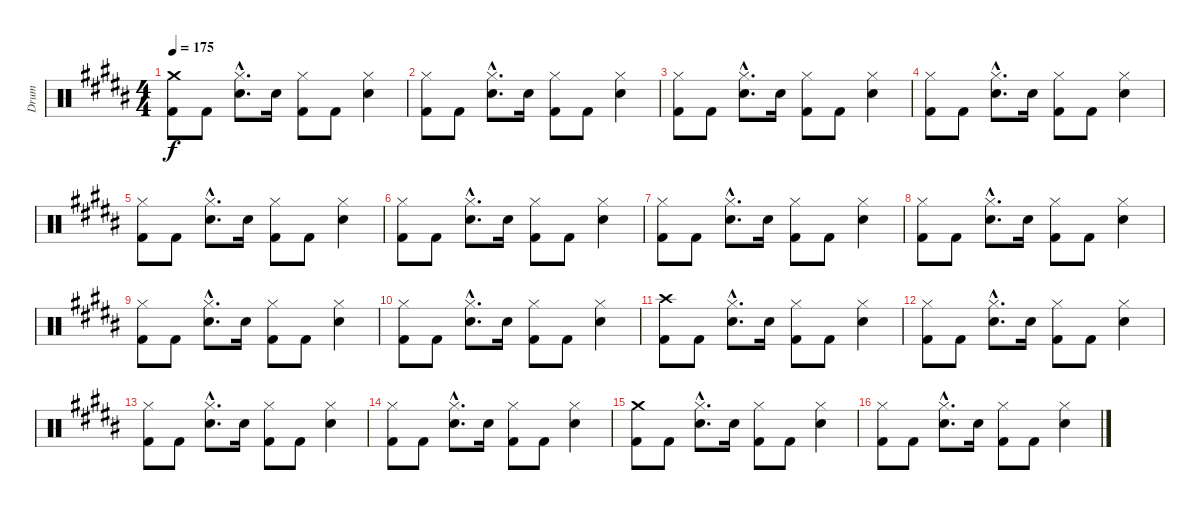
\track ("Drum" "Drum") {instrument percussion}
\staff {score}
\articulation defaults
\ts (4 4)
\tempo 175
\clef neutral
\ks b
("Crash medium (hit)" "Kick (hit) 2").8{dy f} "Kick (hit) 2".8 ("Hi-Hat (closed)"{hac} "Snare (hit) 2"{hac}).8{d} "Snare (hit) 2".16 ("Hi-Hat (closed)" "Kick (hit) 2").8 "Kick (hit) 2".8 ("Hi-Hat (closed)" "Snare (hit) 2").4 |
("Hi-Hat (closed)" "Kick (hit) 2").8 "Kick (hit) 2".8 ("Hi-Hat (closed)"{hac} "Snare (hit) 2"{hac}).8{d} "Snare (hit) 2".16 ("Hi-Hat (closed)" "Kick (hit) 2").8 "Kick (hit) 2".8 ("Hi-Hat (closed)" "Snare (hit) 2").4 |
("Hi-Hat (closed)" "Kick (hit) 2").8 "Kick (hit) 2".8 ("Hi-Hat (closed)"{hac} "Snare (hit) 2"{hac}).8{d} "Snare (hit) 2".16 ("Hi-Hat (closed)" "Kick (hit) 2").8 "Kick (hit) 2".8 ("Hi-Hat (closed)" "Snare (hit) 2").4 |
("Hi-Hat (closed)" "Kick (hit) 2").8 "Kick (hit) 2".8 ("Hi-Hat (closed)"{hac} "Snare (hit) 2"{hac}).8{d} "Snare (hit) 2".16 ("Hi-Hat (closed)" "Kick (hit) 2").8 "Kick (hit) 2".8 ("Hi-Hat (closed)" "Snare (hit) 2").4 |
("Hi-Hat (closed)" "Kick (hit) 2").8 "Kick (hit) 2".8 ("Hi-Hat (closed)"{hac} "Snare (hit) 2"{hac}).8{d} "Snare (hit) 2".16 ("Hi-Hat (closed)" "Kick (hit) 2").8 "Kick (hit) 2".8 ("Hi-Hat (closed)" "Snare (hit) 2").4 |
("Hi-Hat (closed)" "Kick (hit) 2").8 "Kick (hit) 2".8 ("Hi-Hat (closed)"{hac} "Snare (hit) 2"{hac}).8{d} "Snare (hit) 2".16 ("Hi-Hat (closed)" "Kick (hit) 2").8 "Kick (hit) 2".8 ("Hi-Hat (closed)" "Snare (hit) 2").4 |
("Hi-Hat (closed)" "Kick (hit) 2").8 "Kick (hit) 2".8 ("Hi-Hat (closed)"{hac} "Snare (hit) 2"{hac}).8{d} "Snare (hit) 2".16 ("Hi-Hat (closed)" "Kick (hit) 2").8 "Kick (hit) 2".8 ("Hi-Hat (closed)" "Snare (hit) 2").4 |
("Hi-Hat (closed)" "Kick (hit) 2").8 "Kick (hit) 2".8 ("Hi-Hat (closed)"{hac} "Snare (hit) 2"{hac}).8{d} "Snare (hit) 2".16 ("Hi-Hat (closed)" "Kick (hit) 2").8 "Kick (hit) 2".8 ("Hi-Hat (closed)" "Snare (hit) 2").4 |
("Hi-Hat (closed)" "Kick (hit) 2").8 "Kick (hit) 2".8 ("Hi-Hat (closed)"{hac} "Snare (hit) 2"{hac}).8{d} "Snare (hit) 2".16 ("Hi-Hat (closed)" "Kick (hit) 2").8 "Kick (hit) 2".8 ("Hi-Hat (closed)" "Snare (hit) 2").4 |
("Hi-Hat (closed)" "Kick (hit) 2").8 "Kick (hit) 2".8 ("Hi-Hat (closed)"{hac} "Snare (hit) 2"{hac}).8{d} "Snare (hit) 2".16 ("Hi-Hat (closed)" "Kick (hit) 2").8 "Kick (hit) 2".8 ("Hi-Hat (closed)" "Snare (hit) 2").4 |
("Crash high (hit)" "Kick (hit) 2").8 "Kick (hit) 2".8 ("Hi-Hat (closed)"{hac} "Snare (hit) 2"{hac}).8{d} "Snare (hit) 2".16 ("Hi-Hat (closed)" "Kick (hit) 2").8 "Kick (hit) 2".8 ("Hi-Hat (closed)" "Snare (hit) 2").4 |
("Hi-Hat (closed)" "Kick (hit) 2").8 "Kick (hit) 2".8 ("Hi-Hat (closed)"{hac} "Snare (hit) 2"{hac}).8{d} "Snare (hit) 2".16 ("Hi-Hat (closed)" "Kick (hit) 2").8 "Kick (hit) 2".8 ("Hi-Hat (closed)" "Snare (hit) 2").4 |
("Hi-Hat (closed)" "Kick (hit) 2").8 "Kick (hit) 2".8 ("Hi-Hat (closed)"{hac} "Snare (hit) 2"{hac}).8{d} "Snare (hit) 2".16 ("Hi-Hat (closed)" "Kick (hit) 2").8 "Kick (hit) 2".8 ("Hi-Hat (closed)" "Snare (hit) 2").4 |
("Hi-Hat (closed)" "Kick (hit) 2").8 "Kick (hit) 2".8 ("Hi-Hat (closed)"{hac} "Snare (hit) 2"{hac}).8{d} "Snare (hit) 2".16 ("Hi-Hat (closed)" "Kick (hit) 2").8 "Kick (hit) 2".8 ("Hi-Hat (closed)" "Snare (hit) 2").4 |
("Crash medium (hit)" "Kick (hit) 2").8 "Kick (hit) 2".8 ("Hi-Hat (closed)"{hac} "Snare (hit) 2"{hac}).8{d} "Snare (hit) 2".16 ("Hi-Hat (closed)" "Kick (hit) 2").8 "Kick (hit) 2".8 ("Hi-Hat (closed)" "Snare (hit) 2").4 |
("Hi-Hat (closed)" "Kick (hit) 2").8 "Kick (hit) 2".8 ("Hi-Hat (closed)"{hac} "Snare (hit) 2"{hac}).8{d} "Snare (hit) 2".16 ("Hi-Hat (closed)" "Kick (hit) 2").8 "Kick (hit) 2".8 ("Hi-Hat (closed)" "Snare (hit) 2").4
